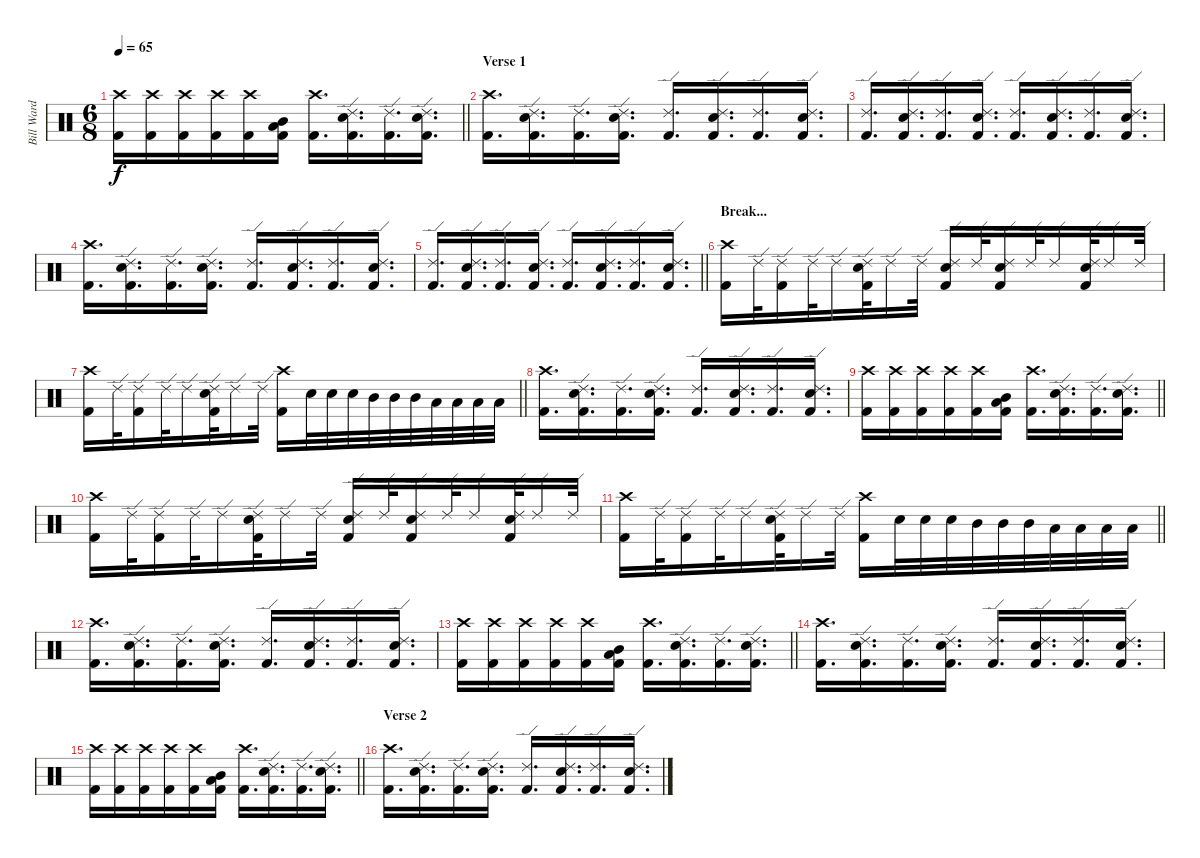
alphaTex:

\track ("Bill Ward (Drums)" "Bill Ward ") {instrument percussion}
\staff {score}
\articulation defaults
\ts (6 8)
\tempo 65
\clef neutral
\barLineRight lightlight
\ks c
("Kick (hit) 2" "Crash high (hit)").16{dy f} ("Kick (hit) 2" "Crash high (hit)").16 ("Kick (hit) 2" "Crash high (hit)").16 ("Kick (hit) 2" "Crash high (hit)").16 ("Kick (hit) 2" "Crash high (hit)").16 ("Kick (hit) 2" "Mid Tom (hit)" "Low Floor Tom (hit)").16 ("Kick (hit) 2" "Crash high (hit)").16{d} ("Kick (hit) 2" "Snare (hit) 2" "Ride (edge) 2").16{d} ("Kick (hit) 2" "Ride (edge) 2").16{d} ("Kick (hit) 2" "Snare (hit) 2" "Ride (edge) 2").16{d} |
\section ("" "Verse 1")
("Kick (hit) 2" "Crash high (hit)").16{d} ("Kick (hit) 2" "Snare (hit) 2" "Ride (edge) 2").16{d} ("Kick (hit) 2" "Ride (edge) 2").16{d} ("Kick (hit) 2" "Snare (hit) 2" "Ride (edge) 2").16{d} ("Kick (hit) 2" "Ride (edge) 2").16{d} ("Kick (hit) 2" "Snare (hit) 2" "Ride (edge) 2").16{d} ("Kick (hit) 2" "Ride (edge) 2").16{d} ("Kick (hit) 2" "Snare (hit) 2" "Ride (edge) 2").16{d} |
("Kick (hit) 2" "Ride (edge) 2").16{d} ("Kick (hit) 2" "Snare (hit) 2" "Ride (edge) 2").16{d} ("Kick (hit) 2" "Ride (edge) 2").16{d} ("Kick (hit) 2" "Snare (hit) 2" "Ride (edge) 2").16{d} ("Kick (hit) 2" "Ride (edge) 2").16{d} ("Kick (hit) 2" "Snare (hit) 2" "Ride (edge) 2").16{d} ("Kick (hit) 2" "Ride (edge) 2").16{d} ("Kick (hit) 2" "Snare (hit) 2" "Ride (edge) 2").16{d} |
("Kick (hit) 2" "Crash high (hit)").16{d} ("Kick (hit) 2" "Snare (hit) 2" "Ride (edge) 2").16{d} ("Kick (hit) 2" "Ride (edge) 2").16{d} ("Kick (hit) 2" "Snare (hit) 2" "Ride (edge) 2").16{d} ("Kick (hit) 2" "Ride (edge) 2").16{d} ("Kick (hit) 2" "Snare (hit) 2" "Ride (edge) 2").16{d} ("Kick (hit) 2" "Ride (edge) 2").16{d} ("Kick (hit) 2" "Snare (hit) 2" "Ride (edge) 2").16{d} |
\barLineRight lightlight
("Kick (hit) 2" "Ride (edge) 2").16{d} ("Kick (hit) 2" "Snare (hit) 2" "Ride (edge) 2").16{d} ("Kick (hit) 2" "Ride (edge) 2").16{d} ("Kick (hit) 2" "Snare (hit) 2" "Ride (edge) 2").16{d} ("Kick (hit) 2" "Ride (edge) 2").16{d} ("Kick (hit) 2" "Snare (hit) 2" "Ride (edge) 2").16{d} ("Kick (hit) 2" "Ride (edge) 2").16{d} ("Kick (hit) 2" "Snare (hit) 2" "Ride (edge) 2").16{d} |
\section ("" "Break...")
("Kick (hit) 2" "Crash high (hit)").16 "Ride (edge) 2".32 ("Kick (hit) 2" "Ride (edge) 2").16 "Ride (edge) 2".32 "Ride (edge) 2".16 ("Kick (hit) 2" "Snare (hit) 2" "Ride (edge) 2").32 "Ride (edge) 2".16 "Ride (edge) 2".32 ("Kick (hit) 2" "Snare (hit) 2" "Ride (edge) 2").16 "Ride (edge) 2".32 ("Kick (hit) 2" "Snare (hit) 2" "Ride (edge) 2").16 "Ride (edge) 2".32 "Ride (edge) 2".16 ("Kick (hit) 2" "Snare (hit) 2" "Ride (edge) 2").32 "Ride (edge) 2".16 "Ride (edge) 2".32 |
\barLineRight lightlight
("Kick (hit) 2" "Crash high (hit)").16 "Ride (edge) 2".32 ("Kick (hit) 2" "Ride (edge) 2").16 "Ride (edge) 2".32 "Ride (edge) 2".16 ("Kick (hit) 2" "Snare (hit) 2" "Ride (edge) 2").32 "Ride (edge) 2".16 "Ride (edge) 2".32 ("Kick (hit) 2" "Crash high (hit)").16 "Snare (hit) 2".32 "Snare (hit) 2".32 "Snare (hit) 2".32 "Mid Tom (hit)".32 "Mid Tom (hit)".32 "Mid Tom (hit)".32 "Low Tom (hit)".32 "Low Tom (hit)".32 "Low Tom (hit)".32 "Low Tom (hit)".32 |
("Kick (hit) 2" "Crash high (hit)").16{d} ("Kick (hit) 2" "Snare (hit) 2" "Ride (edge) 2").16{d} ("Kick (hit) 2" "Ride (edge) 2").16{d} ("Kick (hit) 2" "Snare (hit) 2" "Ride (edge) 2").16{d} ("Kick (hit) 2" "Ride (edge) 2").16{d} ("Kick (hit) 2" "Snare (hit) 2" "Ride (edge) 2").16{d} ("Kick (hit) 2" "Ride (edge) 2").16{d} ("Kick (hit) 2" "Snare (hit) 2" "Ride (edge) 2").16{d} |
\barLineRight lightlight
("Kick (hit) 2" "Crash high (hit)").16 ("Kick (hit) 2" "Crash high (hit)").16 ("Kick (hit) 2" "Crash high (hit)").16 ("Kick (hit) 2" "Crash high (hit)").16 ("Kick (hit) 2" "Crash high (hit)").16 ("Kick (hit) 2" "Mid Tom (hit)" "Low Floor Tom (hit)").16 ("Kick (hit) 2" "Crash high (hit)").16{d} ("Kick (hit) 2" "Snare (hit) 2" "Ride (edge) 2").16{d} ("Kick (hit) 2" "Ride (edge) 2").16{d} ("Kick (hit) 2" "Snare (hit) 2" "Ride (edge) 2").16{d} |
("Kick (hit) 2" "Crash high (hit)").16 "Ride (edge) 2".32 ("Kick (hit) 2" "Ride (edge) 2").16 "Ride (edge) 2".32 "Ride (edge) 2".16 ("Kick (hit) 2" "Snare (hit) 2" "Ride (edge) 2").32 "Ride (edge) 2".16 "Ride (edge) 2".32 ("Kick (hit) 2" "Snare (hit) 2" "Ride (edge) 2").16 "Ride (edge) 2".32 ("Kick (hit) 2" "Snare (hit) 2" "Ride (edge) 2").16 "Ride (edge) 2".32 "Ride (edge) 2".16 ("Kick (hit) 2" "Snare (hit) 2" "Ride (edge) 2").32 "Ride (edge) 2".16 "Ride (edge) 2".32 |
\barLineRight lightlight
("Kick (hit) 2" "Crash high (hit)").16 "Ride (edge) 2".32 ("Kick (hit) 2" "Ride (edge) 2").16 "Ride (edge) 2".32 "Ride (edge) 2".16 ("Kick (hit) 2" "Snare (hit) 2" "Ride (edge) 2").32 "Ride (edge) 2".16 "Ride (edge) 2".32 ("Kick (hit) 2" "Crash high (hit)").16 "Snare (hit) 2".32 "Snare (hit) 2".32 "Snare (hit) 2".32 "Mid Tom (hit)".32 "Mid Tom (hit)".32 "Mid Tom (hit)".32 "Low Tom (hit)".32 "Low Tom (hit)".32 "Low Tom (hit)".32 "Low Tom (hit)".32 |
("Kick (hit) 2" "Crash high (hit)").16{d} ("Kick (hit) 2" "Snare (hit) 2" "Ride (edge) 2").16{d} ("Kick (hit) 2" "Ride (edge) 2").16{d} ("Kick (hit) 2" "Snare (hit) 2" "Ride (edge) 2").16{d} ("Kick (hit) 2" "Ride (edge) 2").16{d} ("Kick (hit) 2" "Snare (hit) 2" "Ride (edge) 2").16{d} ("Kick (hit) 2" "Ride (edge) 2").16{d} ("Kick (hit) 2" "Snare (hit) 2" "Ride (edge) 2").16{d} |
\barLineRight lightlight
("Kick (hit) 2" "Crash high (hit)").16 ("Kick (hit) 2" "Crash high (hit)").16 ("Kick (hit) 2" "Crash high (hit)").16 ("Kick (hit) 2" "Crash high (hit)").16 ("Kick (hit) 2" "Crash high (hit)").16 ("Kick (hit) 2" "Mid Tom (hit)" "Low Floor Tom (hit)").16 ("Kick (hit) 2" "Crash high (hit)").16{d} ("Kick (hit) 2" "Snare (hit) 2" "Ride (edge) 2").16{d} ("Kick (hit) 2" "Ride (edge) 2").16{d} ("Kick (hit) 2" "Snare (hit) 2" "Ride (edge) 2").16{d} |
("Kick (hit) 2" "Crash high (hit)").16{d} ("Kick (hit) 2" "Snare (hit) 2" "Ride (edge) 2").16{d} ("Kick (hit) 2" "Ride (edge) 2").16{d} ("Kick (hit) 2" "Snare (hit) 2" "Ride (edge) 2").16{d} ("Kick (hit) 2" "Ride (edge) 2").16{d} ("Kick (hit) 2" "Snare (hit) 2" "Ride (edge) 2").16{d} ("Kick (hit) 2" "Ride (edge) 2").16{d} ("Kick (hit) 2" "Snare (hit) 2" "Ride (edge) 2").16{d} |
\barLineRight lightlight
("Kick (hit) 2" "Crash high (hit)").16 ("Kick (hit) 2" "Crash high (hit)").16 ("Kick (hit) 2" "Crash high (hit)").16 ("Kick (hit) 2" "Crash high (hit)").16 ("Kick (hit) 2" "Crash high (hit)").16 ("Kick (hit) 2" "Mid Tom (hit)" "Low Floor Tom (hit)").16 ("Kick (hit) 2" "Crash high (hit)").16{d} ("Kick (hit) 2" "Snare (hit) 2" "Ride (edge) 2").16{d} ("Kick (hit) 2" "Ride (edge) 2").16{d} ("Kick (hit) 2" "Snare (hit) 2" "Ride (edge) 2").16{d} |
\section ("" "Verse 2")
("Kick (hit) 2" "Crash high (hit)").16{d} ("Kick (hit) 2" "Snare (hit) 2" "Ride (edge) 2").16{d} ("Kick (hit) 2" "Ride (edge) 2").16{d} ("Kick (hit) 2" "Snare (hit) 2" "Ride (edge) 2").16{d} ("Kick (hit) 2" "Ride (edge) 2").16{d} ("Kick (hit) 2" "Snare (hit) 2" "Ride (edge) 2").16{d} ("Kick (hit) 2" "Ride (edge) 2").16{d} ("Kick (hit) 2" "Snare (hit) 2" "Ride (edge) 2").16{d}
